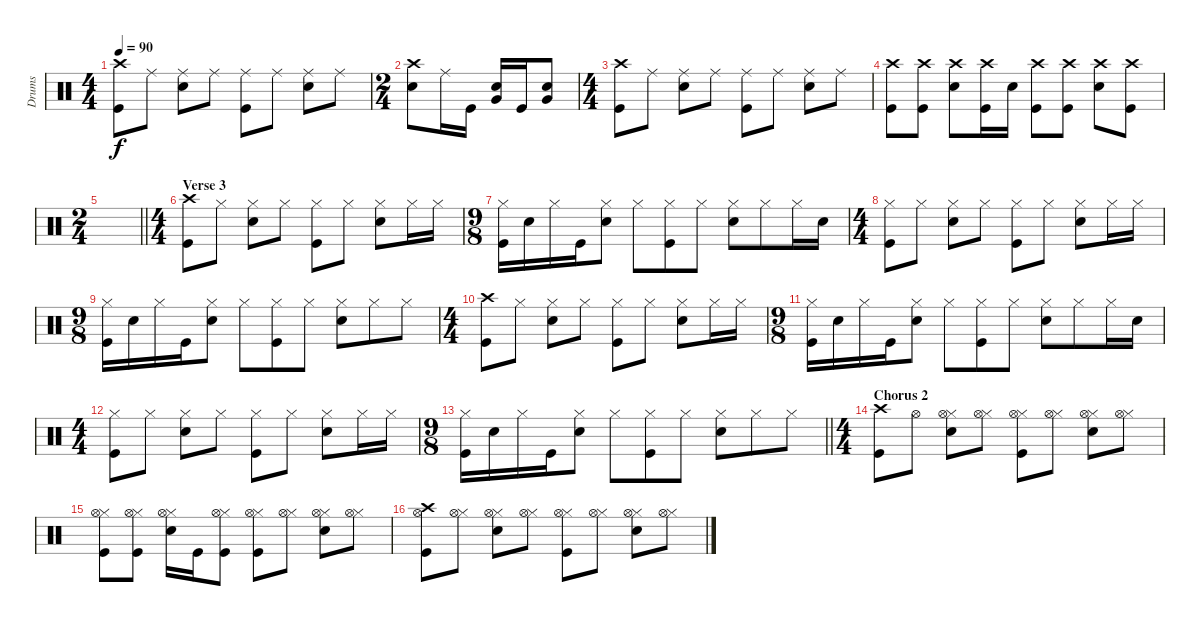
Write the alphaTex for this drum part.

\track ("Drums" "Drums") {instrument percussion}
\staff {score}
\articulation defaults
\ts (4 4)
\tempo 90
\clef neutral
\ks c
("Crash high (hit)" "Kick (hit)").8{dy f} "Ride (middle)".8 ("Snare (hit) 2" "Ride (middle)").8 "Ride (middle)".8 ("Kick (hit)" "Ride (middle)").8 "Ride (middle)".8 ("Snare (hit) 2" "Ride (middle)").8 "Ride (middle)".8 |
\ts (2 4)
("Crash high (hit)" "Snare (hit) 2").8 "Ride (middle)".16 "Kick (hit)".16 ("Very Low Tom (hit)" "Snare (hit) 2").16 "Kick (hit)".16 ("Snare (hit) 2" "Very Low Tom (hit)").8 |
\ts (4 4)
("Crash high (hit)" "Kick (hit)").8 "Ride (middle)".8 ("Snare (hit) 2" "Ride (middle)").8 "Ride (middle)".8 ("Kick (hit)" "Ride (middle)").8 "Ride (middle)".8 ("Snare (hit) 2" "Ride (middle)").8 "Ride (middle)".8 |
("Crash high (hit)" "Kick (hit)").8 ("Crash high (hit)" "Kick (hit)").8 ("Crash high (hit)" "Snare (hit) 2").8 ("Crash high (hit)" "Kick (hit)").16 "Snare (hit) 2".16 ("Crash high (hit)" "Kick (hit)").8 ("Crash high (hit)" "Kick (hit)").8 ("Crash high (hit)" "Snare (hit) 2").8 ("Kick (hit)" "Crash high (hit)").8 |
\ts (2 4)
\barLineRight lightlight
|
\ts (4 4)
\section ("" "Verse 3")
("Crash high (hit)" "Kick (hit)").8 "Hi-Hat (closed)".8 ("Snare (hit) 2" "Hi-Hat (closed)").8 "Hi-Hat (closed)".8 ("Kick (hit)" "Hi-Hat (closed)").8 "Hi-Hat (closed)".8 ("Snare (hit) 2" "Hi-Hat (closed)").8 "Hi-Hat (closed)".16 "Hi-Hat (closed)".16 |
\ts (9 8)
("Kick (hit)" "Hi-Hat (closed)").16 "Snare (hit) 2".16 "Hi-Hat (closed)".16 "Kick (hit)".16 ("Snare (hit) 2" "Hi-Hat (closed)").8 "Hi-Hat (closed)".8 ("Kick (hit)" "Hi-Hat (closed)").8 "Hi-Hat (closed)".8 ("Snare (hit) 2" "Hi-Hat (closed)").8 "Hi-Hat (closed)".8 "Hi-Hat (closed)".16 "Snare (hit) 2".16 |
\ts (4 4)
("Kick (hit)" "Hi-Hat (closed)").8 "Hi-Hat (closed)".8 ("Snare (hit) 2" "Hi-Hat (closed)").8 "Hi-Hat (closed)".8 ("Kick (hit)" "Hi-Hat (closed)").8 "Hi-Hat (closed)".8 ("Snare (hit) 2" "Hi-Hat (closed)").8 "Hi-Hat (closed)".16 "Hi-Hat (closed)".16 |
\ts (9 8)
("Kick (hit)" "Hi-Hat (closed)").16 "Snare (hit) 2".16 "Hi-Hat (closed)".16 "Kick (hit)".16 ("Snare (hit) 2" "Hi-Hat (closed)").8 "Hi-Hat (closed)".8 ("Kick (hit)" "Hi-Hat (closed)").8 "Hi-Hat (closed)".8 ("Snare (hit) 2" "Hi-Hat (closed)").8 "Hi-Hat (closed)".8 "Hi-Hat (closed)".8 |
\ts (4 4)
("Crash high (hit)" "Kick (hit)").8 "Hi-Hat (closed)".8 ("Snare (hit) 2" "Hi-Hat (closed)").8 "Hi-Hat (closed)".8 ("Kick (hit)" "Hi-Hat (closed)").8 "Hi-Hat (closed)".8 ("Snare (hit) 2" "Hi-Hat (closed)").8 "Hi-Hat (closed)".16 "Hi-Hat (closed)".16 |
\ts (9 8)
("Kick (hit)" "Hi-Hat (closed)").16 "Snare (hit) 2".16 "Hi-Hat (closed)".16 "Kick (hit)".16 ("Snare (hit) 2" "Hi-Hat (closed)").8 "Hi-Hat (closed)".8 ("Kick (hit)" "Hi-Hat (closed)").8 "Hi-Hat (closed)".8 ("Snare (hit) 2" "Hi-Hat (closed)").8 "Hi-Hat (closed)".8 "Hi-Hat (closed)".16 "Snare (hit) 2".16 |
\ts (4 4)
("Kick (hit)" "Hi-Hat (closed)").8 "Hi-Hat (closed)".8 ("Snare (hit) 2" "Hi-Hat (closed)").8 "Hi-Hat (closed)".8 ("Kick (hit)" "Hi-Hat (closed)").8 "Hi-Hat (closed)".8 ("Snare (hit) 2" "Hi-Hat (closed)").8 "Hi-Hat (closed)".16 "Hi-Hat (closed)".16 |
\ts (9 8)
\barLineRight lightlight
("Kick (hit)" "Hi-Hat (closed)").16 "Snare (hit) 2".16 "Hi-Hat (closed)".16 "Kick (hit)".16 ("Snare (hit) 2" "Hi-Hat (closed)").8 "Hi-Hat (closed)".8 ("Kick (hit)" "Hi-Hat (closed)").8 "Hi-Hat (closed)".8 ("Snare (hit) 2" "Hi-Hat (closed)").8 "Hi-Hat (closed)".8 "Hi-Hat (closed)".8 |
\ts (4 4)
\section ("" "Chorus 2")
("Crash high (hit)" "Kick (hit)").8 "Hi-Hat (open)".8 ("Snare (hit) 2" "Hi-Hat (closed)" "Hi-Hat (open)").8 ("Hi-Hat (closed)" "Hi-Hat (open)").8 ("Hi-Hat (closed)" "Kick (hit)" "Hi-Hat (open)").8 ("Hi-Hat (closed)" "Hi-Hat (open)").8 ("Hi-Hat (closed)" "Snare (hit) 2" "Hi-Hat (open)").8 ("Hi-Hat (closed)" "Hi-Hat (open)").8 |
("Kick (hit)" "Hi-Hat (closed)" "Hi-Hat (open)").8 ("Kick (hit)" "Hi-Hat (closed)" "Hi-Hat (open)").8 ("Snare (hit) 2" "Hi-Hat (closed)" "Hi-Hat (open)").16 "Kick (hit)".16 ("Hi-Hat (closed)" "Kick (hit)" "Hi-Hat (open)").8 ("Kick (hit)" "Hi-Hat (closed)" "Hi-Hat (open)").8 ("Hi-Hat (closed)" "Hi-Hat (open)").8 ("Snare (hit) 2" "Hi-Hat (closed)" "Hi-Hat (open)").8 ("Hi-Hat (closed)" "Hi-Hat (open)").8 |
("Crash high (hit)" "Kick (hit)" "Hi-Hat (open)").8 ("Hi-Hat (closed)" "Hi-Hat (open)").8 ("Snare (hit) 2" "Hi-Hat (closed)" "Hi-Hat (open)").8 ("Hi-Hat (closed)" "Hi-Hat (open)").8 ("Hi-Hat (closed)" "Kick (hit)" "Hi-Hat (open)").8 ("Hi-Hat (closed)" "Hi-Hat (open)").8 ("Hi-Hat (closed)" "Snare (hit) 2" "Hi-Hat (open)").8 ("Hi-Hat (closed)" "Hi-Hat (open)").8
